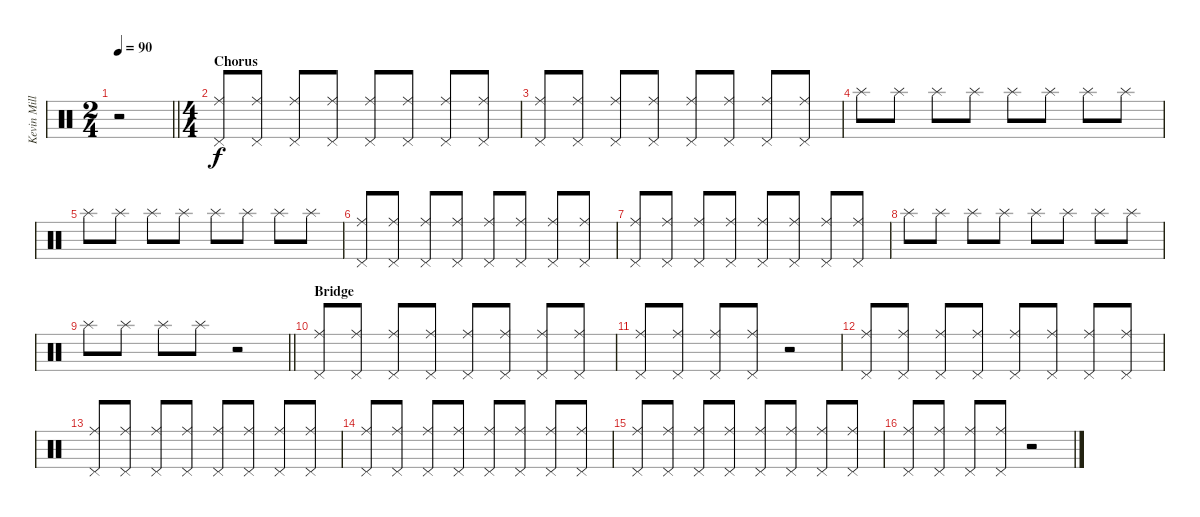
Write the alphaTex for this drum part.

\track ("Kevin Miller (Drums)" "Kevin Mill") {instrument percussion}
\staff {score}
\articulation defaults
\ts (2 4)
\tempo 90
\clef neutral
\barLineRight lightlight
\ks c
r.2{dy f} |
\ts (4 4)
\section ("" "Chorus")
("Ride (middle)" "Pedal Hi-Hat (hit)").8 ("Ride (middle)" "Pedal Hi-Hat (hit)").8 ("Ride (middle)" "Pedal Hi-Hat (hit)").8 ("Ride (middle)" "Pedal Hi-Hat (hit)").8 ("Ride (middle)" "Pedal Hi-Hat (hit)").8 ("Ride (middle)" "Pedal Hi-Hat (hit)").8 ("Ride (middle)" "Pedal Hi-Hat (hit)").8 ("Ride (middle)" "Pedal Hi-Hat (hit)").8 |
("Ride (middle)" "Pedal Hi-Hat (hit)").8 ("Ride (middle)" "Pedal Hi-Hat (hit)").8 ("Ride (middle)" "Pedal Hi-Hat (hit)").8 ("Ride (middle)" "Pedal Hi-Hat (hit)").8 ("Ride (middle)" "Pedal Hi-Hat (hit)").8 ("Ride (middle)" "Pedal Hi-Hat (hit)").8 ("Ride (middle)" "Pedal Hi-Hat (hit)").8 ("Ride (middle)" "Pedal Hi-Hat (hit)").8 |
"Splash (hit)".8 "Splash (hit)".8 "Splash (hit)".8 "Splash (hit)".8 "Splash (hit)".8 "Splash (hit)".8 "Splash (hit)".8 "Splash (hit)".8 |
"Splash (hit)".8 "Splash (hit)".8 "Splash (hit)".8 "Splash (hit)".8 "Splash (hit)".8 "Splash (hit)".8 "Splash (hit)".8 "Splash (hit)".8 |
("Ride (middle)" "Pedal Hi-Hat (hit)").8 ("Ride (middle)" "Pedal Hi-Hat (hit)").8 ("Ride (middle)" "Pedal Hi-Hat (hit)").8 ("Ride (middle)" "Pedal Hi-Hat (hit)").8 ("Ride (middle)" "Pedal Hi-Hat (hit)").8 ("Ride (middle)" "Pedal Hi-Hat (hit)").8 ("Ride (middle)" "Pedal Hi-Hat (hit)").8 ("Ride (middle)" "Pedal Hi-Hat (hit)").8 |
("Ride (middle)" "Pedal Hi-Hat (hit)").8 ("Ride (middle)" "Pedal Hi-Hat (hit)").8 ("Ride (middle)" "Pedal Hi-Hat (hit)").8 ("Ride (middle)" "Pedal Hi-Hat (hit)").8 ("Ride (middle)" "Pedal Hi-Hat (hit)").8 ("Ride (middle)" "Pedal Hi-Hat (hit)").8 ("Ride (middle)" "Pedal Hi-Hat (hit)").8 ("Ride (middle)" "Pedal Hi-Hat (hit)").8 |
"Splash (hit)".8 "Splash (hit)".8 "Splash (hit)".8 "Splash (hit)".8 "Splash (hit)".8 "Splash (hit)".8 "Splash (hit)".8 "Splash (hit)".8 |
\barLineRight lightlight "Splash (hit)".8 "Splash (hit)".8 "Splash (hit)".8 "Splash (hit)".8
r.2 |
\section ("" "Bridge")
("Ride (middle)" "Pedal Hi-Hat (hit)").8 ("Ride (middle)" "Pedal Hi-Hat (hit)").8 ("Ride (middle)" "Pedal Hi-Hat (hit)").8 ("Ride (middle)" "Pedal Hi-Hat (hit)").8 ("Ride (middle)" "Pedal Hi-Hat (hit)").8 ("Ride (middle)" "Pedal Hi-Hat (hit)").8 ("Ride (middle)" "Pedal Hi-Hat (hit)").8 ("Ride (middle)" "Pedal Hi-Hat (hit)").8 |
("Ride (middle)" "Pedal Hi-Hat (hit)").8 ("Ride (middle)" "Pedal Hi-Hat (hit)").8 ("Ride (middle)" "Pedal Hi-Hat (hit)").8 ("Ride (middle)" "Pedal Hi-Hat (hit)").8 r.2 |
("Ride (middle)" "Pedal Hi-Hat (hit)").8 ("Ride (middle)" "Pedal Hi-Hat (hit)").8 ("Ride (middle)" "Pedal Hi-Hat (hit)").8 ("Ride (middle)" "Pedal Hi-Hat (hit)").8 ("Ride (middle)" "Pedal Hi-Hat (hit)").8 ("Ride (middle)" "Pedal Hi-Hat (hit)").8 ("Ride (middle)" "Pedal Hi-Hat (hit)").8 ("Ride (middle)" "Pedal Hi-Hat (hit)").8 |
("Ride (middle)" "Pedal Hi-Hat (hit)").8 ("Ride (middle)" "Pedal Hi-Hat (hit)").8 ("Ride (middle)" "Pedal Hi-Hat (hit)").8 ("Ride (middle)" "Pedal Hi-Hat (hit)").8 ("Ride (middle)" "Pedal Hi-Hat (hit)").8 ("Ride (middle)" "Pedal Hi-Hat (hit)").8 ("Ride (middle)" "Pedal Hi-Hat (hit)").8 ("Ride (middle)" "Pedal Hi-Hat (hit)").8 |
("Ride (middle)" "Pedal Hi-Hat (hit)").8 ("Ride (middle)" "Pedal Hi-Hat (hit)").8 ("Ride (middle)" "Pedal Hi-Hat (hit)").8 ("Ride (middle)" "Pedal Hi-Hat (hit)").8 ("Ride (middle)" "Pedal Hi-Hat (hit)").8 ("Ride (middle)" "Pedal Hi-Hat (hit)").8 ("Ride (middle)" "Pedal Hi-Hat (hit)").8 ("Ride (middle)" "Pedal Hi-Hat (hit)").8 |
("Ride (middle)" "Pedal Hi-Hat (hit)").8 ("Ride (middle)" "Pedal Hi-Hat (hit)").8 ("Ride (middle)" "Pedal Hi-Hat (hit)").8 ("Ride (middle)" "Pedal Hi-Hat (hit)").8 ("Ride (middle)" "Pedal Hi-Hat (hit)").8 ("Ride (middle)" "Pedal Hi-Hat (hit)").8 ("Ride (middle)" "Pedal Hi-Hat (hit)").8 ("Ride (middle)" "Pedal Hi-Hat (hit)").8 |
("Ride (middle)" "Pedal Hi-Hat (hit)").8 ("Ride (middle)" "Pedal Hi-Hat (hit)").8 ("Ride (middle)" "Pedal Hi-Hat (hit)").8 ("Ride (middle)" "Pedal Hi-Hat (hit)").8 r.2
